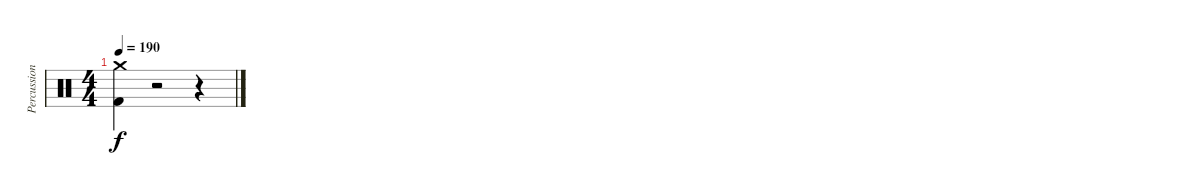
\track ("Percussion" "Percussion") {instrument percussion}
\staff {score}
\articulation defaults
\ts (4 4)
\tempo 190
\clef neutral
\ks c
("Crash medium (hit)" "Kick (hit) 2").4{dy f} r.2 r.4
